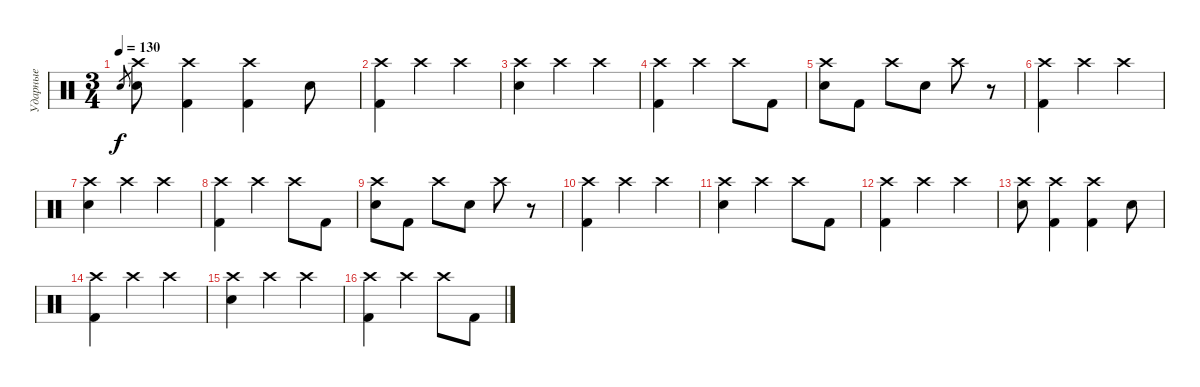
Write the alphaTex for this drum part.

\track ("Ударные" "Ударные") {instrument percussion}
\staff {score}
\articulation defaults
\ts (3 4)
\tempo 130
\clef neutral
\ks c "Electric Snare (hit)".8{gr dy f}
("Crash high (hit)" "Electric Snare (hit)").8 ("Crash high (hit)" "Kick (hit) 2").4 ("Crash high (hit)" "Kick (hit) 2").4 "Electric Snare (hit)".8 |
("Crash high (hit)" "Kick (hit) 2").4 "Crash high (hit)".4 "Crash high (hit)".4 |
("Crash high (hit)" "Electric Snare (hit)").4 "Crash high (hit)".4 "Crash high (hit)".4 |
("Crash high (hit)" "Kick (hit) 2").4 "Crash high (hit)".4 "Crash high (hit)".8 "Kick (hit) 2".8 |
("Crash high (hit)" "Electric Snare (hit)").8 "Kick (hit) 2".8 "Crash high (hit)".8 "Electric Snare (hit)".8 "Crash high (hit)".8 r.8 |
("Crash high (hit)" "Kick (hit) 2").4 "Crash high (hit)".4 "Crash high (hit)".4 |
("Crash high (hit)" "Electric Snare (hit)").4 "Crash high (hit)".4 "Crash high (hit)".4 |
("Crash high (hit)" "Kick (hit) 2").4 "Crash high (hit)".4 "Crash high (hit)".8 "Kick (hit) 2".8 |
("Crash high (hit)" "Electric Snare (hit)").8 "Kick (hit) 2".8 "Crash high (hit)".8 "Electric Snare (hit)".8 "Crash high (hit)".8 r.8 |
("Crash high (hit)" "Kick (hit) 2").4 "Crash high (hit)".4 "Crash high (hit)".4 |
("Crash high (hit)" "Electric Snare (hit)").4 "Crash high (hit)".4 "Crash high (hit)".8 "Kick (hit) 2".8 |
("Crash high (hit)" "Kick (hit) 2").4 "Crash high (hit)".4 "Crash high (hit)".4 |
("Crash high (hit)" "Electric Snare (hit)").8 ("Crash high (hit)" "Kick (hit) 2").4 ("Crash high (hit)" "Kick (hit) 2").4 "Electric Snare (hit)".8 |
("Crash high (hit)" "Kick (hit) 2").4 "Crash high (hit)".4 "Crash high (hit)".4 |
("Crash high (hit)" "Electric Snare (hit)").4 "Crash high (hit)".4 "Crash high (hit)".4 |
("Crash high (hit)" "Kick (hit) 2").4 "Crash high (hit)".4 "Crash high (hit)".8 "Kick (hit) 2".8
